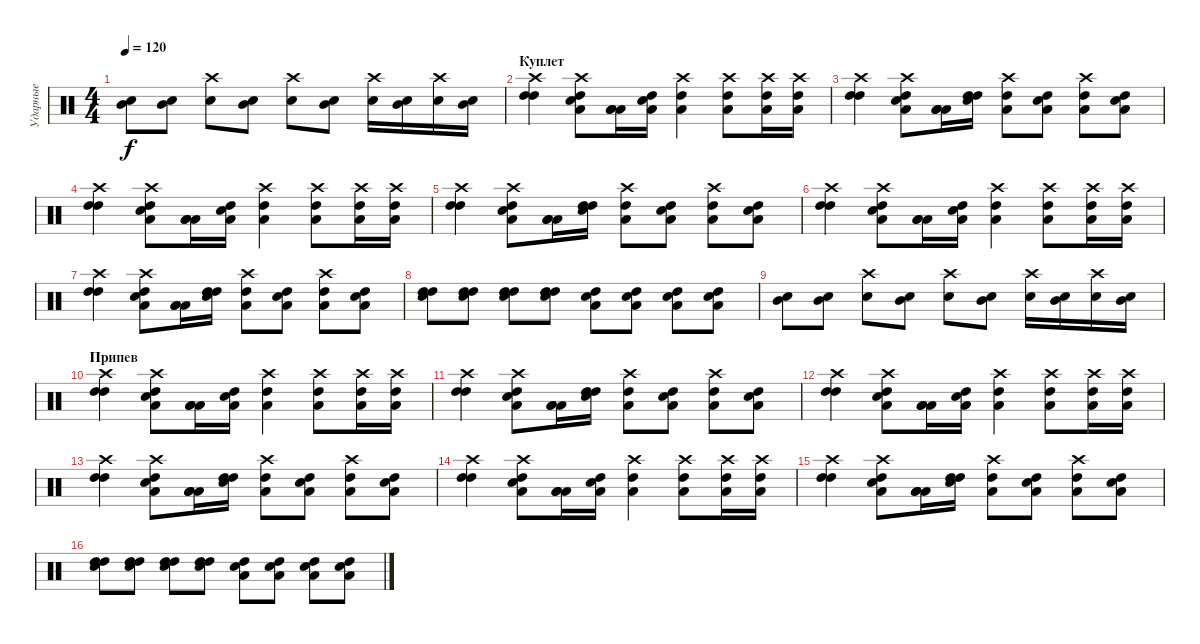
\track ("Ударные" "Ударные") {instrument percussion}
\staff {score}
\articulation defaults
\ts (4 4)
\tempo 120
\clef neutral
\ks c
("Electric Snare (hit)" "Mid Tom (hit)").8{dy f} ("Electric Snare (hit)" "Mid Tom (hit)").8 ("Electric Snare (hit)" "Crash high (hit)").8 ("Electric Snare (hit)" "Mid Tom (hit)").8 ("Electric Snare (hit)" "Crash high (hit)").8 ("Electric Snare (hit)" "Mid Tom (hit)").8 ("Electric Snare (hit)" "Crash high (hit)").16 ("Electric Snare (hit)" "Mid Tom (hit)").16 ("Electric Snare (hit)" "Crash high (hit)").16 ("Electric Snare (hit)" "Mid Tom (hit)").16 |
\section ("" "Куплет")
("High Tom (hit)" "High Tom (hit)" "Crash high (hit)").4 ("High Tom (hit)" "Low Tom (hit)" "Electric Snare (hit)" "Crash high (hit)").8 ("Low Tom (hit)" "Low Tom (hit)" "Low Tom (hit)").16 ("High Tom (hit)" "Low Tom (hit)" "Electric Snare (hit)").16 ("High Tom (hit)" "Low Tom (hit)" "Crash high (hit)").4 ("High Tom (hit)" "Low Tom (hit)" "Crash high (hit)").8 ("High Tom (hit)" "Low Tom (hit)" "Crash high (hit)").16 ("High Tom (hit)" "Low Tom (hit)" "Crash high (hit)").16 |
("High Tom (hit)" "High Tom (hit)" "Crash high (hit)").4 ("High Tom (hit)" "Low Tom (hit)" "Electric Snare (hit)" "Crash high (hit)").8 ("Low Tom (hit)" "Low Tom (hit)" "Low Tom (hit)").16 ("High Tom (hit)" "High Tom (hit)" "Snare (hit) 2").16 ("High Tom (hit)" "Low Tom (hit)" "Crash high (hit)").8 ("High Tom (hit)" "Low Tom (hit)" "Electric Snare (hit)").8 ("High Tom (hit)" "Low Tom (hit)" "Crash high (hit)").8 ("High Tom (hit)" "Low Tom (hit)" "Electric Snare (hit)").8 |
("High Tom (hit)" "High Tom (hit)" "Crash high (hit)").4 ("High Tom (hit)" "Low Tom (hit)" "Electric Snare (hit)" "Crash high (hit)").8 ("Low Tom (hit)" "Low Tom (hit)" "Low Tom (hit)").16 ("High Tom (hit)" "Low Tom (hit)" "Electric Snare (hit)").16 ("High Tom (hit)" "Low Tom (hit)" "Crash high (hit)").4 ("High Tom (hit)" "Low Tom (hit)" "Crash high (hit)").8 ("High Tom (hit)" "Low Tom (hit)" "Crash high (hit)").16 ("High Tom (hit)" "Low Tom (hit)" "Crash high (hit)").16 |
("High Tom (hit)" "High Tom (hit)" "Crash high (hit)").4 ("High Tom (hit)" "Low Tom (hit)" "Electric Snare (hit)" "Crash high (hit)").8 ("Low Tom (hit)" "Low Tom (hit)" "Low Tom (hit)").16 ("High Tom (hit)" "High Tom (hit)" "Snare (hit) 2").16 ("High Tom (hit)" "Low Tom (hit)" "Crash high (hit)").8 ("High Tom (hit)" "Low Tom (hit)" "Electric Snare (hit)").8 ("High Tom (hit)" "Low Tom (hit)" "Crash high (hit)").8 ("High Tom (hit)" "Low Tom (hit)" "Electric Snare (hit)").8 |
("High Tom (hit)" "High Tom (hit)" "Crash high (hit)").4 ("High Tom (hit)" "Low Tom (hit)" "Electric Snare (hit)" "Crash high (hit)").8 ("Low Tom (hit)" "Low Tom (hit)" "Low Tom (hit)").16 ("High Tom (hit)" "Low Tom (hit)" "Electric Snare (hit)").16 ("High Tom (hit)" "Low Tom (hit)" "Crash high (hit)").4 ("High Tom (hit)" "Low Tom (hit)" "Crash high (hit)").8 ("High Tom (hit)" "Low Tom (hit)" "Crash high (hit)").16 ("High Tom (hit)" "Low Tom (hit)" "Crash high (hit)").16 |
("High Tom (hit)" "High Tom (hit)" "Crash high (hit)").4 ("High Tom (hit)" "Low Tom (hit)" "Electric Snare (hit)" "Crash high (hit)").8 ("Low Tom (hit)" "Low Tom (hit)" "Low Tom (hit)").16 ("High Tom (hit)" "High Tom (hit)" "Snare (hit) 2").16 ("High Tom (hit)" "Low Tom (hit)" "Crash high (hit)").8 ("High Tom (hit)" "Low Tom (hit)" "Electric Snare (hit)").8 ("High Tom (hit)" "Low Tom (hit)" "Crash high (hit)").8 ("High Tom (hit)" "Low Tom (hit)" "Electric Snare (hit)").8 |
("High Tom (hit)" "High Tom (hit)" "Snare (hit) 2").8 ("High Tom (hit)" "High Tom (hit)" "Snare (hit) 2").8 ("High Tom (hit)" "High Tom (hit)" "Snare (hit) 2").8 ("High Tom (hit)" "High Tom (hit)" "Snare (hit) 2").8 ("High Tom (hit)" "Low Tom (hit)" "Snare (hit) 2").8 ("High Tom (hit)" "Low Tom (hit)" "Snare (hit) 2").8 ("High Tom (hit)" "Low Tom (hit)" "Snare (hit) 2").8 ("High Tom (hit)" "Low Tom (hit)" "Snare (hit) 2").8 |
("Electric Snare (hit)" "Mid Tom (hit)").8 ("Electric Snare (hit)" "Mid Tom (hit)").8 ("Electric Snare (hit)" "Crash high (hit)").8 ("Electric Snare (hit)" "Mid Tom (hit)").8 ("Electric Snare (hit)" "Crash high (hit)").8 ("Electric Snare (hit)" "Mid Tom (hit)").8 ("Electric Snare (hit)" "Crash high (hit)").16 ("Electric Snare (hit)" "Mid Tom (hit)").16 ("Electric Snare (hit)" "Crash high (hit)").16 ("Electric Snare (hit)" "Mid Tom (hit)").16 |
\section ("" "Припев")
("High Tom (hit)" "High Tom (hit)" "Crash high (hit)").4 ("High Tom (hit)" "Low Tom (hit)" "Electric Snare (hit)" "Crash high (hit)").8 ("Low Tom (hit)" "Low Tom (hit)" "Low Tom (hit)").16 ("High Tom (hit)" "Low Tom (hit)" "Electric Snare (hit)").16 ("High Tom (hit)" "Low Tom (hit)" "Crash high (hit)").4 ("High Tom (hit)" "Low Tom (hit)" "Crash high (hit)").8 ("High Tom (hit)" "Low Tom (hit)" "Crash high (hit)").16 ("High Tom (hit)" "Low Tom (hit)" "Crash high (hit)").16 |
("High Tom (hit)" "High Tom (hit)" "Crash high (hit)").4 ("High Tom (hit)" "Low Tom (hit)" "Electric Snare (hit)" "Crash high (hit)").8 ("Low Tom (hit)" "Low Tom (hit)" "Low Tom (hit)").16 ("High Tom (hit)" "High Tom (hit)" "Snare (hit) 2").16 ("High Tom (hit)" "Low Tom (hit)" "Crash high (hit)").8 ("High Tom (hit)" "Low Tom (hit)" "Electric Snare (hit)").8 ("High Tom (hit)" "Low Tom (hit)" "Crash high (hit)").8 ("High Tom (hit)" "Low Tom (hit)" "Electric Snare (hit)").8 |
("High Tom (hit)" "High Tom (hit)" "Crash high (hit)").4 ("High Tom (hit)" "Low Tom (hit)" "Electric Snare (hit)" "Crash high (hit)").8 ("Low Tom (hit)" "Low Tom (hit)" "Low Tom (hit)").16 ("High Tom (hit)" "Low Tom (hit)" "Electric Snare (hit)").16 ("High Tom (hit)" "Low Tom (hit)" "Crash high (hit)").4 ("High Tom (hit)" "Low Tom (hit)" "Crash high (hit)").8 ("High Tom (hit)" "Low Tom (hit)" "Crash high (hit)").16 ("High Tom (hit)" "Low Tom (hit)" "Crash high (hit)").16 |
("High Tom (hit)" "High Tom (hit)" "Crash high (hit)").4 ("High Tom (hit)" "Low Tom (hit)" "Electric Snare (hit)" "Crash high (hit)").8 ("Low Tom (hit)" "Low Tom (hit)" "Low Tom (hit)").16 ("High Tom (hit)" "High Tom (hit)" "Snare (hit) 2").16 ("High Tom (hit)" "Low Tom (hit)" "Crash high (hit)").8 ("High Tom (hit)" "Low Tom (hit)" "Electric Snare (hit)").8 ("High Tom (hit)" "Low Tom (hit)" "Crash high (hit)").8 ("High Tom (hit)" "Low Tom (hit)" "Electric Snare (hit)").8 |
("High Tom (hit)" "High Tom (hit)" "Crash high (hit)").4 ("High Tom (hit)" "Low Tom (hit)" "Electric Snare (hit)" "Crash high (hit)").8 ("Low Tom (hit)" "Low Tom (hit)" "Low Tom (hit)").16 ("High Tom (hit)" "Low Tom (hit)" "Electric Snare (hit)").16 ("High Tom (hit)" "Low Tom (hit)" "Crash high (hit)").4 ("High Tom (hit)" "Low Tom (hit)" "Crash high (hit)").8 ("High Tom (hit)" "Low Tom (hit)" "Crash high (hit)").16 ("High Tom (hit)" "Low Tom (hit)" "Crash high (hit)").16 |
("High Tom (hit)" "High Tom (hit)" "Crash high (hit)").4 ("High Tom (hit)" "Low Tom (hit)" "Electric Snare (hit)" "Crash high (hit)").8 ("Low Tom (hit)" "Low Tom (hit)" "Low Tom (hit)").16 ("High Tom (hit)" "High Tom (hit)" "Snare (hit) 2").16 ("High Tom (hit)" "Low Tom (hit)" "Crash high (hit)").8 ("High Tom (hit)" "Low Tom (hit)" "Electric Snare (hit)").8 ("High Tom (hit)" "Low Tom (hit)" "Crash high (hit)").8 ("High Tom (hit)" "Low Tom (hit)" "Electric Snare (hit)").8 |
("High Tom (hit)" "High Tom (hit)" "Snare (hit) 2").8 ("High Tom (hit)" "High Tom (hit)" "Snare (hit) 2").8 ("High Tom (hit)" "High Tom (hit)" "Snare (hit) 2").8 ("High Tom (hit)" "High Tom (hit)" "Snare (hit) 2").8 ("High Tom (hit)" "Low Tom (hit)" "Snare (hit) 2").8 ("High Tom (hit)" "Low Tom (hit)" "Snare (hit) 2").8 ("High Tom (hit)" "Low Tom (hit)" "Snare (hit) 2").8 ("High Tom (hit)" "Low Tom (hit)" "Snare (hit) 2").8
